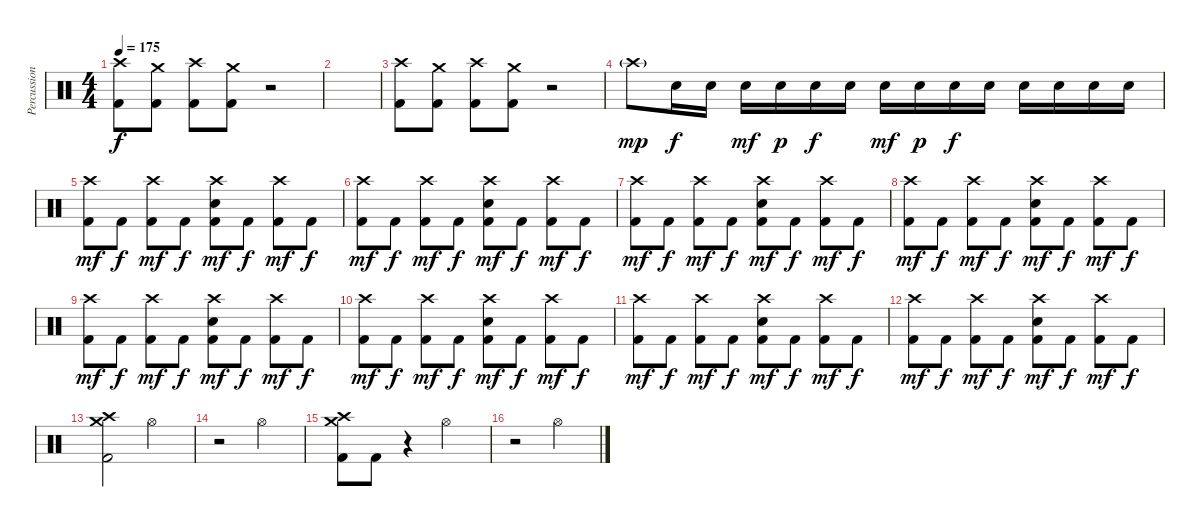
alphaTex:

\track ("Percussion" "Percussion") {instrument percussion}
\staff {score}
\articulation defaults
\ts (4 4)
\tempo 175
\clef neutral
\ks c
("Crash high (hit)" "Kick (hit) 2").8{dy f} ("Crash medium (hit)" "Kick (hit) 2").8 ("Crash high (hit)" "Kick (hit) 2").8 ("Crash medium (hit)" "Kick (hit) 2").8 r.2 |
|
("Crash high (hit)" "Kick (hit) 2").8 ("Crash medium (hit)" "Kick (hit) 2").8 ("Crash high (hit)" "Kick (hit) 2").8 ("Crash medium (hit)" "Kick (hit) 2").8 r.2 |
"Crash high (hit)"{g}.8{dy mp} "Electric Snare (hit)".16{dy f} "Electric Snare (hit)".16 "Electric Snare (hit)".16{dy mf} "Electric Snare (hit)".16{dy p} "Electric Snare (hit)".16{dy f} "Electric Snare (hit)".16 "Electric Snare (hit)".16{dy mf} "Electric Snare (hit)".16{dy p} "Electric Snare (hit)".16{dy f} "Electric Snare (hit)".16 "Electric Snare (hit)".16 "Electric Snare (hit)".16 "Electric Snare (hit)".16 "Electric Snare (hit)".16 |
("Crash high (hit)" "Kick (hit) 2").8{dy mf} "Kick (hit) 2".8{dy f} ("Crash high (hit)" "Kick (hit) 2").8{dy mf} "Kick (hit) 2".8{dy f} ("Crash high (hit)" "Electric Snare (hit)" "Kick (hit) 2").8{dy mf} "Kick (hit) 2".8{dy f} ("Crash high (hit)" "Kick (hit) 2").8{dy mf} "Kick (hit) 2".8{dy f} |
("Crash high (hit)" "Kick (hit) 2").8{dy mf} "Kick (hit) 2".8{dy f} ("Crash high (hit)" "Kick (hit) 2").8{dy mf} "Kick (hit) 2".8{dy f} ("Crash high (hit)" "Electric Snare (hit)" "Kick (hit) 2").8{dy mf} "Kick (hit) 2".8{dy f} ("Crash high (hit)" "Kick (hit) 2").8{dy mf} "Kick (hit) 2".8{dy f} |
("Crash high (hit)" "Kick (hit) 2").8{dy mf} "Kick (hit) 2".8{dy f} ("Crash high (hit)" "Kick (hit) 2").8{dy mf} "Kick (hit) 2".8{dy f} ("Crash high (hit)" "Electric Snare (hit)" "Kick (hit) 2").8{dy mf} "Kick (hit) 2".8{dy f} ("Crash high (hit)" "Kick (hit) 2").8{dy mf} "Kick (hit) 2".8{dy f} |
("Crash high (hit)" "Kick (hit) 2").8{dy mf} "Kick (hit) 2".8{dy f} ("Crash high (hit)" "Kick (hit) 2").8{dy mf} "Kick (hit) 2".8{dy f} ("Crash high (hit)" "Electric Snare (hit)" "Kick (hit) 2").8{dy mf} "Kick (hit) 2".8{dy f} ("Crash high (hit)" "Kick (hit) 2").8{dy mf} "Kick (hit) 2".8{dy f} |
("Crash high (hit)" "Kick (hit) 2").8{dy mf} "Kick (hit) 2".8{dy f} ("Crash high (hit)" "Kick (hit) 2").8{dy mf} "Kick (hit) 2".8{dy f} ("Crash high (hit)" "Electric Snare (hit)" "Kick (hit) 2").8{dy mf} "Kick (hit) 2".8{dy f} ("Crash high (hit)" "Kick (hit) 2").8{dy mf} "Kick (hit) 2".8{dy f} |
("Crash high (hit)" "Kick (hit) 2").8{dy mf} "Kick (hit) 2".8{dy f} ("Crash high (hit)" "Kick (hit) 2").8{dy mf} "Kick (hit) 2".8{dy f} ("Crash high (hit)" "Electric Snare (hit)" "Kick (hit) 2").8{dy mf} "Kick (hit) 2".8{dy f} ("Crash high (hit)" "Kick (hit) 2").8{dy mf} "Kick (hit) 2".8{dy f} |
("Crash high (hit)" "Kick (hit) 2").8{dy mf} "Kick (hit) 2".8{dy f} ("Crash high (hit)" "Kick (hit) 2").8{dy mf} "Kick (hit) 2".8{dy f} ("Crash high (hit)" "Electric Snare (hit)" "Kick (hit) 2").8{dy mf} "Kick (hit) 2".8{dy f} ("Crash high (hit)" "Kick (hit) 2").8{dy mf} "Kick (hit) 2".8{dy f} |
("Crash high (hit)" "Kick (hit) 2").8{dy mf} "Kick (hit) 2".8{dy f} ("Crash high (hit)" "Kick (hit) 2").8{dy mf} "Kick (hit) 2".8{dy f} ("Crash high (hit)" "Electric Snare (hit)" "Kick (hit) 2").8{dy mf} "Kick (hit) 2".8{dy f} ("Crash high (hit)" "Kick (hit) 2").8{dy mf} "Kick (hit) 2".8{dy f} |
("Crash medium (hit)" "Crash high (hit)" "Kick (hit) 2").2 "Hi-Hat (open)".2 |
r.2 "Hi-Hat (open)".2 |
("Crash medium (hit)" "Crash high (hit)" "Kick (hit) 2").8 "Kick (hit) 2".8 r.4 "Hi-Hat (open)".2 |
r.2 "Hi-Hat (open)".2
